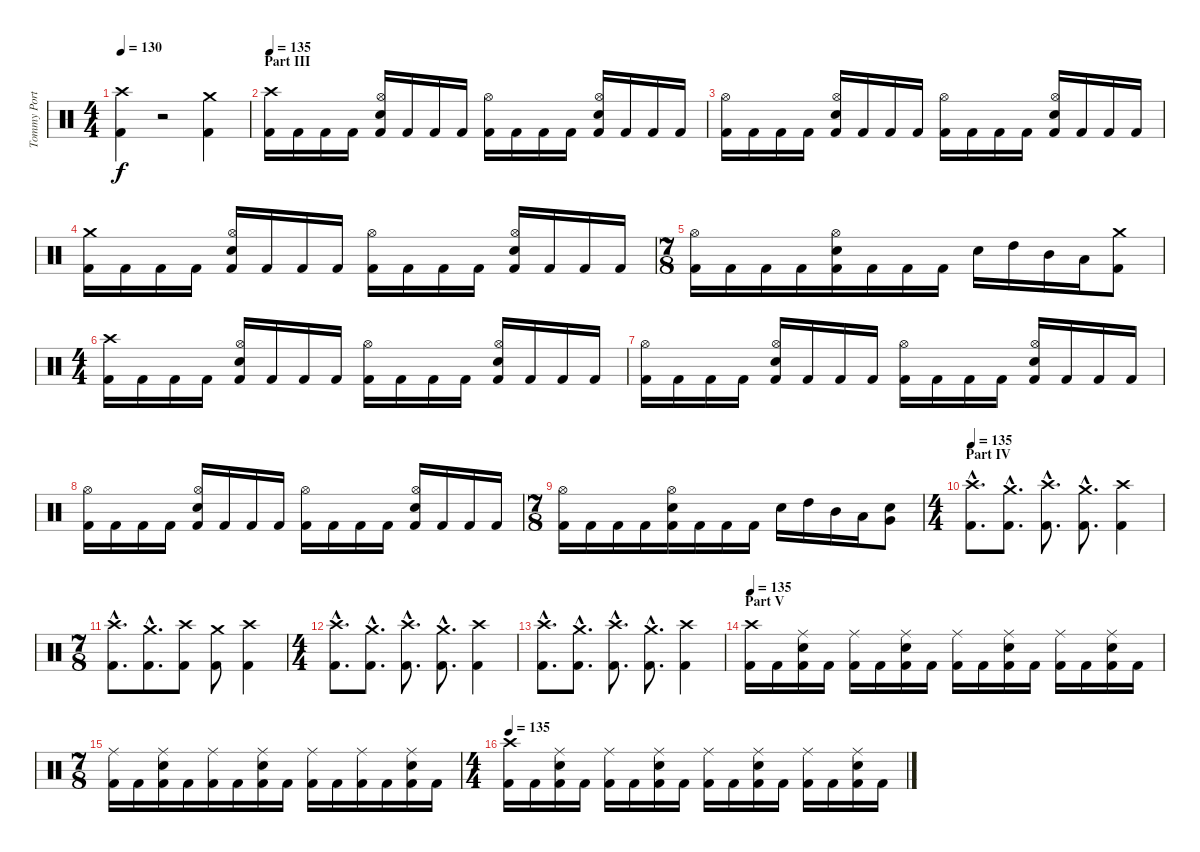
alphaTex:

\track ("Tommy Portimo - Drums" "Tommy Port") {instrument percussion}
\staff {score}
\articulation defaults
\ts (4 4)
\tempo 130
\clef neutral
\ks c
("Crash high (hit)" "Kick (hit) 2").4{dy f} r.2 ("Crash medium (hit)" "Kick (hit) 2").4 |
\section ("" "Part III")
\tempo 135
("Crash high (hit)" "Kick (hit) 2").16 "Kick (hit) 2".16 "Kick (hit) 2".16 "Kick (hit) 2".16 ("Hi-Hat (open)" "Electric Snare (hit)" "Kick (hit) 2").16 "Kick (hit) 2".16 "Kick (hit) 2".16 "Kick (hit) 2".16 ("Hi-Hat (open)" "Kick (hit) 2").16 "Kick (hit) 2".16 "Kick (hit) 2".16 "Kick (hit) 2".16 ("Hi-Hat (open)" "Electric Snare (hit)" "Kick (hit) 2").16 "Kick (hit) 2".16 "Kick (hit) 2".16 "Kick (hit) 2".16 |
("Hi-Hat (open)" "Kick (hit) 2").16 "Kick (hit) 2".16 "Kick (hit) 2".16 "Kick (hit) 2".16 ("Hi-Hat (open)" "Electric Snare (hit)" "Kick (hit) 2").16 "Kick (hit) 2".16 "Kick (hit) 2".16 "Kick (hit) 2".16 ("Hi-Hat (open)" "Kick (hit) 2").16 "Kick (hit) 2".16 "Kick (hit) 2".16 "Kick (hit) 2".16 ("Hi-Hat (open)" "Electric Snare (hit)" "Kick (hit) 2").16 "Kick (hit) 2".16 "Kick (hit) 2".16 "Kick (hit) 2".16 |
("Crash medium (hit)" "Kick (hit) 2").16 "Kick (hit) 2".16 "Kick (hit) 2".16 "Kick (hit) 2".16 ("Hi-Hat (open)" "Electric Snare (hit)" "Kick (hit) 2").16 "Kick (hit) 2".16 "Kick (hit) 2".16 "Kick (hit) 2".16 ("Hi-Hat (open)" "Kick (hit) 2").16 "Kick (hit) 2".16 "Kick (hit) 2".16 "Kick (hit) 2".16 ("Hi-Hat (open)" "Electric Snare (hit)" "Kick (hit) 2").16 "Kick (hit) 2".16 "Kick (hit) 2".16 "Kick (hit) 2".16 |
\ts (7 8)
("Hi-Hat (open)" "Kick (hit) 2").16 "Kick (hit) 2".16 "Kick (hit) 2".16 "Kick (hit) 2".16 ("Hi-Hat (open)" "Electric Snare (hit)" "Kick (hit) 2").16 "Kick (hit) 2".16 "Kick (hit) 2".16 "Kick (hit) 2".16 "Electric Snare (hit)".16 "High Tom (hit)".16 "Mid Tom (hit)".16 "Low Tom (hit)".16 ("Crash medium (hit)" "Kick (hit) 2").8 |
\ts (4 4)
("Crash high (hit)" "Kick (hit) 2").16 "Kick (hit) 2".16 "Kick (hit) 2".16 "Kick (hit) 2".16 ("Hi-Hat (open)" "Electric Snare (hit)" "Kick (hit) 2").16 "Kick (hit) 2".16 "Kick (hit) 2".16 "Kick (hit) 2".16 ("Hi-Hat (open)" "Kick (hit) 2").16 "Kick (hit) 2".16 "Kick (hit) 2".16 "Kick (hit) 2".16 ("Hi-Hat (open)" "Electric Snare (hit)" "Kick (hit) 2").16 "Kick (hit) 2".16 "Kick (hit) 2".16 "Kick (hit) 2".16 |
("Hi-Hat (open)" "Kick (hit) 2").16 "Kick (hit) 2".16 "Kick (hit) 2".16 "Kick (hit) 2".16 ("Hi-Hat (open)" "Electric Snare (hit)" "Kick (hit) 2").16 "Kick (hit) 2".16 "Kick (hit) 2".16 "Kick (hit) 2".16 ("Hi-Hat (open)" "Kick (hit) 2").16 "Kick (hit) 2".16 "Kick (hit) 2".16 "Kick (hit) 2".16 ("Hi-Hat (open)" "Electric Snare (hit)" "Kick (hit) 2").16 "Kick (hit) 2".16 "Kick (hit) 2".16 "Kick (hit) 2".16 |
("Hi-Hat (open)" "Kick (hit) 2").16 "Kick (hit) 2".16 "Kick (hit) 2".16 "Kick (hit) 2".16 ("Hi-Hat (open)" "Electric Snare (hit)" "Kick (hit) 2").16 "Kick (hit) 2".16 "Kick (hit) 2".16 "Kick (hit) 2".16 ("Hi-Hat (open)" "Kick (hit) 2").16 "Kick (hit) 2".16 "Kick (hit) 2".16 "Kick (hit) 2".16 ("Hi-Hat (open)" "Electric Snare (hit)" "Kick (hit) 2").16 "Kick (hit) 2".16 "Kick (hit) 2".16 "Kick (hit) 2".16 |
\ts (7 8)
("Hi-Hat (open)" "Kick (hit) 2").16 "Kick (hit) 2".16 "Kick (hit) 2".16 "Kick (hit) 2".16 ("Hi-Hat (open)" "Electric Snare (hit)" "Kick (hit) 2").16 "Kick (hit) 2".16 "Kick (hit) 2".16 "Kick (hit) 2".16 "Electric Snare (hit)".16 "High Tom (hit)".16 "Mid Tom (hit)".16 "Low Tom (hit)".16 ("Very Low Tom (hit)" "Electric Snare (hit)").8 |
\ts (4 4)
\section ("" "Part IV")
\tempo 135
("Crash high (hit)"{hac} "Kick (hit) 2"{hac}).8{d} ("Crash medium (hit)"{hac} "Kick (hit) 2"{hac}).8{d} ("Crash high (hit)"{hac} "Kick (hit) 2"{hac}).8{d} ("Crash medium (hit)"{hac} "Kick (hit) 2"{hac}).8{d} ("Crash high (hit)" "Kick (hit) 2").4 |
\ts (7 8)
("Crash high (hit)"{hac} "Kick (hit) 2"{hac}).8{d} ("Crash medium (hit)"{hac} "Kick (hit) 2"{hac}).8{d} ("Crash high (hit)" "Kick (hit) 2").8 ("Crash medium (hit)" "Kick (hit) 2").8 ("Crash high (hit)" "Kick (hit) 2").4 |
\ts (4 4)
("Crash high (hit)"{hac} "Kick (hit) 2"{hac}).8{d} ("Crash medium (hit)"{hac} "Kick (hit) 2"{hac}).8{d} ("Crash high (hit)"{hac} "Kick (hit) 2"{hac}).8{d} ("Crash medium (hit)"{hac} "Kick (hit) 2"{hac}).8{d} ("Crash high (hit)" "Kick (hit) 2").4 |
("Crash high (hit)"{hac} "Kick (hit) 2"{hac}).8{d} ("Crash medium (hit)"{hac} "Kick (hit) 2"{hac}).8{d} ("Crash high (hit)"{hac} "Kick (hit) 2"{hac}).8{d} ("Crash medium (hit)"{hac} "Kick (hit) 2"{hac}).8{d} ("Crash high (hit)" "Kick (hit) 2").4 |
\section ("" "Part V")
\tempo 135
("Crash high (hit)" "Kick (hit) 2").16 "Kick (hit) 2".16 ("Ride (middle)" "Electric Snare (hit)" "Kick (hit) 2").16 "Kick (hit) 2".16 ("Ride (middle)" "Kick (hit) 2").16 "Kick (hit) 2".16 ("Ride (middle)" "Electric Snare (hit)" "Kick (hit) 2").16 "Kick (hit) 2".16 ("Ride (middle)" "Kick (hit) 2").16 "Kick (hit) 2".16 ("Ride (middle)" "Electric Snare (hit)" "Kick (hit) 2").16 "Kick (hit) 2".16 ("Ride (middle)" "Kick (hit) 2").16 "Kick (hit) 2".16 ("Ride (middle)" "Electric Snare (hit)" "Kick (hit) 2").16 "Kick (hit) 2".16 |
\ts (7 8)
("Ride (middle)" "Kick (hit) 2").16 "Kick (hit) 2".16 ("Ride (middle)" "Electric Snare (hit)" "Kick (hit) 2").16 "Kick (hit) 2".16 ("Ride (middle)" "Kick (hit) 2").16 "Kick (hit) 2".16 ("Ride (middle)" "Electric Snare (hit)" "Kick (hit) 2").16 "Kick (hit) 2".16 ("Ride (middle)" "Kick (hit) 2").16 "Kick (hit) 2".16 ("Ride (middle)" "Kick (hit) 2").16 "Kick (hit) 2".16 ("Ride (middle)" "Electric Snare (hit)" "Kick (hit) 2").16 "Kick (hit) 2".16 |
\ts (4 4)
\tempo 135
("Crash high (hit)" "Kick (hit) 2").16 "Kick (hit) 2".16 ("Ride (middle)" "Electric Snare (hit)" "Kick (hit) 2").16 "Kick (hit) 2".16 ("Ride (middle)" "Kick (hit) 2").16 "Kick (hit) 2".16 ("Ride (middle)" "Electric Snare (hit)" "Kick (hit) 2").16 "Kick (hit) 2".16 ("Ride (middle)" "Kick (hit) 2").16 "Kick (hit) 2".16 ("Ride (middle)" "Electric Snare (hit)" "Kick (hit) 2").16 "Kick (hit) 2".16 ("Ride (middle)" "Kick (hit) 2").16 "Kick (hit) 2".16 ("Ride (middle)" "Electric Snare (hit)" "Kick (hit) 2").16 "Kick (hit) 2".16
